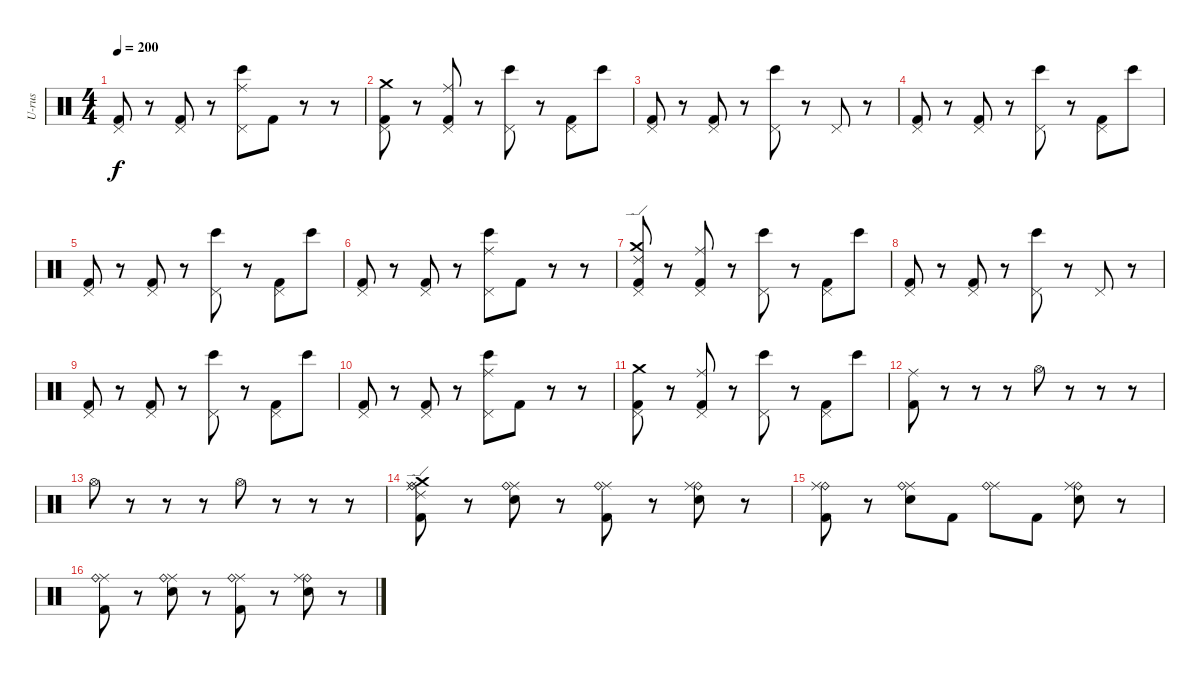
\track ("U-rus" "U-rus") {instrument percussion}
\staff {score}
\articulation defaults
\ts (4 4)
\tempo 200
\clef neutral
\ks c
("Pedal Hi-Hat (hit)" "Kick (hit) 2").8{dy f} r.8 ("Pedal Hi-Hat (hit)" "Kick (hit) 2").8 r.8 ("Ride (middle)" "Bongo High (hit)" "Pedal Hi-Hat (hit)").8 "Kick (hit) 2".8 r.8 r.8 |
("Crash medium (hit)" "Pedal Hi-Hat (hit)" "Kick (hit) 2").8 r.8 ("Ride (middle)" "Pedal Hi-Hat (hit)" "Kick (hit) 2").8 r.8 ("Bongo High (hit)" "Pedal Hi-Hat (hit)").8 r.8 ("Pedal Hi-Hat (hit)" "Kick (hit) 2").8 "Bongo High (hit)".8 |
("Pedal Hi-Hat (hit)" "Kick (hit) 2").8 r.8 ("Pedal Hi-Hat (hit)" "Kick (hit) 2").8 r.8 ("Bongo High (hit)" "Pedal Hi-Hat (hit)").8 r.8 "Pedal Hi-Hat (hit)".8 r.8 |
("Pedal Hi-Hat (hit)" "Kick (hit) 2").8 r.8 ("Pedal Hi-Hat (hit)" "Kick (hit) 2").8 r.8 ("Pedal Hi-Hat (hit)" "Bongo High (hit)").8 r.8 ("Pedal Hi-Hat (hit)" "Kick (hit) 2").8 "Bongo High (hit)".8 |
("Pedal Hi-Hat (hit)" "Kick (hit) 2").8 r.8 ("Pedal Hi-Hat (hit)" "Kick (hit) 2").8 r.8 ("Bongo High (hit)" "Pedal Hi-Hat (hit)").8 r.8 ("Pedal Hi-Hat (hit)" "Kick (hit) 2").8 "Bongo High (hit)".8 |
("Pedal Hi-Hat (hit)" "Kick (hit) 2").8 r.8 ("Pedal Hi-Hat (hit)" "Kick (hit) 2").8 r.8 ("Bongo High (hit)" "Ride (middle)" "Pedal Hi-Hat (hit)").8 "Kick (hit) 2".8 r.8 r.8 |
("Ride (edge) 2" "Crash medium (hit)" "Pedal Hi-Hat (hit)" "Kick (hit) 2").8 r.8 ("Ride (middle)" "Pedal Hi-Hat (hit)" "Kick (hit) 2").8 r.8 ("Bongo High (hit)" "Pedal Hi-Hat (hit)").8 r.8 ("Pedal Hi-Hat (hit)" "Kick (hit) 2").8 "Bongo High (hit)".8 |
("Pedal Hi-Hat (hit)" "Kick (hit) 2").8 r.8 ("Pedal Hi-Hat (hit)" "Kick (hit) 2").8 r.8 ("Bongo High (hit)" "Pedal Hi-Hat (hit)").8 r.8 "Pedal Hi-Hat (hit)".8 r.8 |
("Pedal Hi-Hat (hit)" "Kick (hit) 2").8 r.8 ("Pedal Hi-Hat (hit)" "Kick (hit) 2").8 r.8 ("Bongo High (hit)" "Pedal Hi-Hat (hit)").8 r.8 ("Pedal Hi-Hat (hit)" "Kick (hit) 2").8 "Bongo High (hit)".8 |
("Pedal Hi-Hat (hit)" "Kick (hit) 2").8 r.8 ("Pedal Hi-Hat (hit)" "Kick (hit) 2").8 r.8 ("Bongo High (hit)" "Ride (middle)" "Pedal Hi-Hat (hit)").8 "Kick (hit) 2".8 r.8 r.8 |
("Crash medium (hit)" "Pedal Hi-Hat (hit)" "Kick (hit) 2").8 r.8 ("Ride (middle)" "Pedal Hi-Hat (hit)" "Kick (hit) 2").8 r.8 ("Bongo High (hit)" "Pedal Hi-Hat (hit)").8 r.8 ("Pedal Hi-Hat (hit)" "Kick (hit) 2").8 "Bongo High (hit)".8 |
("Ride (middle)" "Kick (hit) 2").8 r.8 r.8 r.8 "Hi-Hat (open)".8 r.8 r.8 r.8 |
"Hi-Hat (open)".8 r.8 r.8 r.8 "Hi-Hat (open)".8 r.8 r.8 r.8 |
("Ride (edge) 2" "Ride (middle)" "Crash medium (hit)" "Ride (bell)" "Kick (hit) 2").8 r.8 ("Ride (middle)" "Ride (bell)" "Snare (hit) 2").8 r.8 ("Ride (middle)" "Ride (bell)" "Kick (hit) 2").8 r.8 ("Ride (bell)" "Ride (middle)" "Snare (hit) 2").8 r.8 |
("Ride (bell)" "Ride (middle)" "Kick (hit) 2").8 r.8 ("Ride (middle)" "Ride (bell)" "Snare (hit) 2").8 "Kick (hit) 2".8 ("Ride (middle)" "Ride (bell)").8 "Kick (hit) 2".8 ("Ride (bell)" "Ride (middle)" "Snare (hit) 2").8 r.8 |
("Ride (middle)" "Ride (bell)" "Kick (hit) 2").8 r.8 ("Ride (middle)" "Ride (bell)" "Snare (hit) 2").8 r.8 ("Ride (middle)" "Ride (bell)" "Kick (hit) 2").8 r.8 ("Ride (bell)" "Ride (middle)" "Snare (hit) 2").8 r.8
